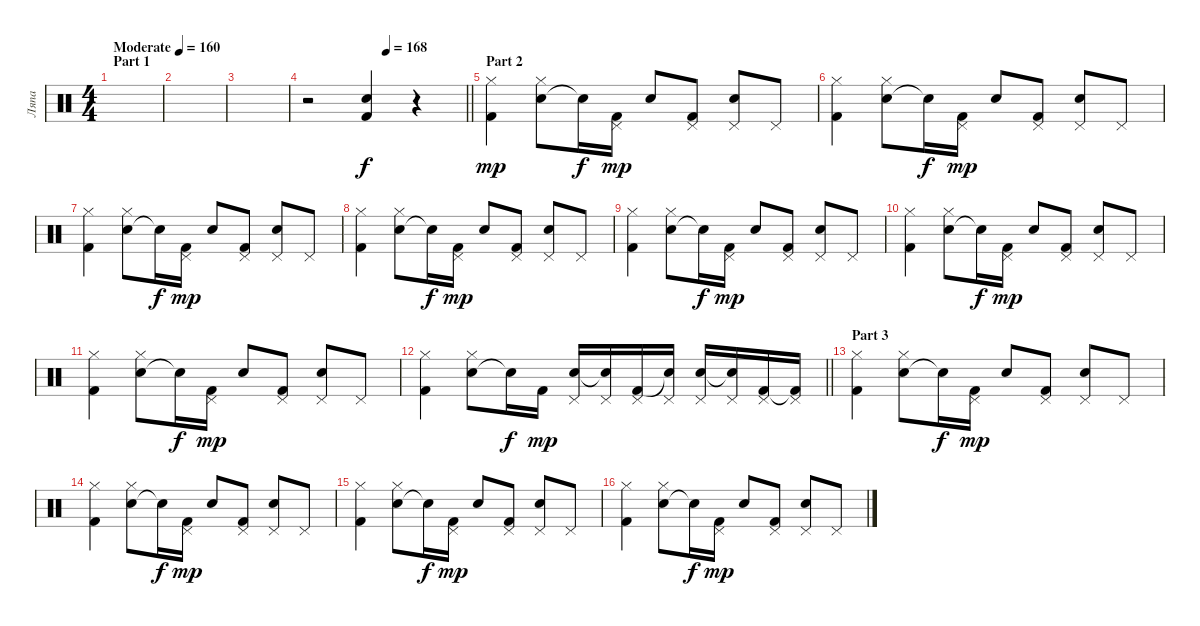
\track ("Ляпа" "Ляпа") {instrument percussion}
\staff {score}
\articulation defaults
\ts (4 4)
\section ("" "Part 1")
\tempo (160 "Moderate")
\clef neutral
\ks c
|
|
|
\tempo (168 0.5)
\barLineRight lightlight
r.2 ("Kick (hit) 2" "Snare (hit) 2").4 r.4 |
\section ("" "Part 2")
("Kick (hit) 2" "Hi-Hat (closed)").4{dy mp} ("Electric Snare (hit)" "Hi-Hat (closed)").8 "Snare (hit)"{t}.16{dy f} ("Kick (hit) 2" "Pedal Hi-Hat (hit)").16{dy mp} "Electric Snare (hit)".8 ("Kick (hit) 2" "Pedal Hi-Hat (hit)").8 ("Electric Snare (hit)" "Pedal Hi-Hat (hit)").8 "Pedal Hi-Hat (hit)".8 |
("Kick (hit) 2" "Hi-Hat (closed)").4 ("Electric Snare (hit)" "Hi-Hat (closed)").8 "Snare (hit)"{t}.16{dy f} ("Kick (hit) 2" "Pedal Hi-Hat (hit)").16{dy mp} "Electric Snare (hit)".8 ("Kick (hit) 2" "Pedal Hi-Hat (hit)").8 ("Electric Snare (hit)" "Pedal Hi-Hat (hit)").8 "Pedal Hi-Hat (hit)".8 |
("Kick (hit) 2" "Hi-Hat (closed)").4 ("Electric Snare (hit)" "Hi-Hat (closed)").8 "Snare (hit)"{t}.16{dy f} ("Kick (hit) 2" "Pedal Hi-Hat (hit)").16{dy mp} "Electric Snare (hit)".8 ("Kick (hit) 2" "Pedal Hi-Hat (hit)").8 ("Electric Snare (hit)" "Pedal Hi-Hat (hit)").8 "Pedal Hi-Hat (hit)".8 |
("Kick (hit) 2" "Hi-Hat (closed)").4 ("Electric Snare (hit)" "Hi-Hat (closed)").8 "Snare (hit)"{t}.16{dy f} ("Kick (hit) 2" "Pedal Hi-Hat (hit)").16{dy mp} "Electric Snare (hit)".8 ("Kick (hit) 2" "Pedal Hi-Hat (hit)").8 ("Electric Snare (hit)" "Pedal Hi-Hat (hit)").8 "Pedal Hi-Hat (hit)".8 |
("Kick (hit) 2" "Hi-Hat (closed)").4 ("Electric Snare (hit)" "Hi-Hat (closed)").8 "Snare (hit)"{t}.16{dy f} ("Kick (hit) 2" "Pedal Hi-Hat (hit)").16{dy mp} "Electric Snare (hit)".8 ("Kick (hit) 2" "Pedal Hi-Hat (hit)").8 ("Electric Snare (hit)" "Pedal Hi-Hat (hit)").8 "Pedal Hi-Hat (hit)".8 |
("Kick (hit) 2" "Hi-Hat (closed)").4 ("Electric Snare (hit)" "Hi-Hat (closed)").8 "Snare (hit)"{t}.16{dy f} ("Kick (hit) 2" "Pedal Hi-Hat (hit)").16{dy mp} "Electric Snare (hit)".8 ("Kick (hit) 2" "Pedal Hi-Hat (hit)").8 ("Electric Snare (hit)" "Pedal Hi-Hat (hit)").8 "Pedal Hi-Hat (hit)".8 |
("Kick (hit) 2" "Hi-Hat (closed)").4 ("Electric Snare (hit)" "Hi-Hat (closed)").8 "Snare (hit)"{t}.16{dy f} ("Kick (hit) 2" "Pedal Hi-Hat (hit)").16{dy mp} "Electric Snare (hit)".8 ("Kick (hit) 2" "Pedal Hi-Hat (hit)").8 ("Electric Snare (hit)" "Pedal Hi-Hat (hit)").8 "Pedal Hi-Hat (hit)".8 |
\barLineRight lightlight
("Kick (hit) 2" "Hi-Hat (closed)").4 ("Electric Snare (hit)" "Hi-Hat (closed)").8 "Snare (hit)"{t}.16{dy f} "Kick (hit) 2".16{dy mp} ("Electric Snare (hit)" "Pedal Hi-Hat (hit)").16 ("Snare (hit)"{t} "Pedal Hi-Hat (hit)").16 ("Kick (hit) 2" "Pedal Hi-Hat (hit)").16 ("Snare (hit)"{t} "Pedal Hi-Hat (hit)").16 ("Electric Snare (hit)" "Pedal Hi-Hat (hit)").16 ("Snare (hit)"{t} "Pedal Hi-Hat (hit)").16 ("Kick (hit) 2" "Pedal Hi-Hat (hit)").16 ("Kick (hit) 2"{t} "Pedal Hi-Hat (hit)").16 |
\section ("" "Part 3")
("Kick (hit) 2" "Hi-Hat (closed)").4 ("Electric Snare (hit)" "Hi-Hat (closed)").8 "Snare (hit)"{t}.16{dy f} ("Kick (hit) 2" "Pedal Hi-Hat (hit)").16{dy mp} "Electric Snare (hit)".8 ("Kick (hit) 2" "Pedal Hi-Hat (hit)").8 ("Electric Snare (hit)" "Pedal Hi-Hat (hit)").8 "Pedal Hi-Hat (hit)".8 |
("Kick (hit) 2" "Hi-Hat (closed)").4 ("Electric Snare (hit)" "Hi-Hat (closed)").8 "Snare (hit)"{t}.16{dy f} ("Kick (hit) 2" "Pedal Hi-Hat (hit)").16{dy mp} "Electric Snare (hit)".8 ("Kick (hit) 2" "Pedal Hi-Hat (hit)").8 ("Electric Snare (hit)" "Pedal Hi-Hat (hit)").8 "Pedal Hi-Hat (hit)".8 |
("Kick (hit) 2" "Hi-Hat (closed)").4 ("Electric Snare (hit)" "Hi-Hat (closed)").8 "Snare (hit)"{t}.16{dy f} ("Kick (hit) 2" "Pedal Hi-Hat (hit)").16{dy mp} "Electric Snare (hit)".8 ("Kick (hit) 2" "Pedal Hi-Hat (hit)").8 ("Electric Snare (hit)" "Pedal Hi-Hat (hit)").8 "Pedal Hi-Hat (hit)".8 |
("Kick (hit) 2" "Hi-Hat (closed)").4 ("Electric Snare (hit)" "Hi-Hat (closed)").8 "Snare (hit)"{t}.16{dy f} ("Kick (hit) 2" "Pedal Hi-Hat (hit)").16{dy mp} "Electric Snare (hit)".8 ("Kick (hit) 2" "Pedal Hi-Hat (hit)").8 ("Electric Snare (hit)" "Pedal Hi-Hat (hit)").8 "Pedal Hi-Hat (hit)".8
